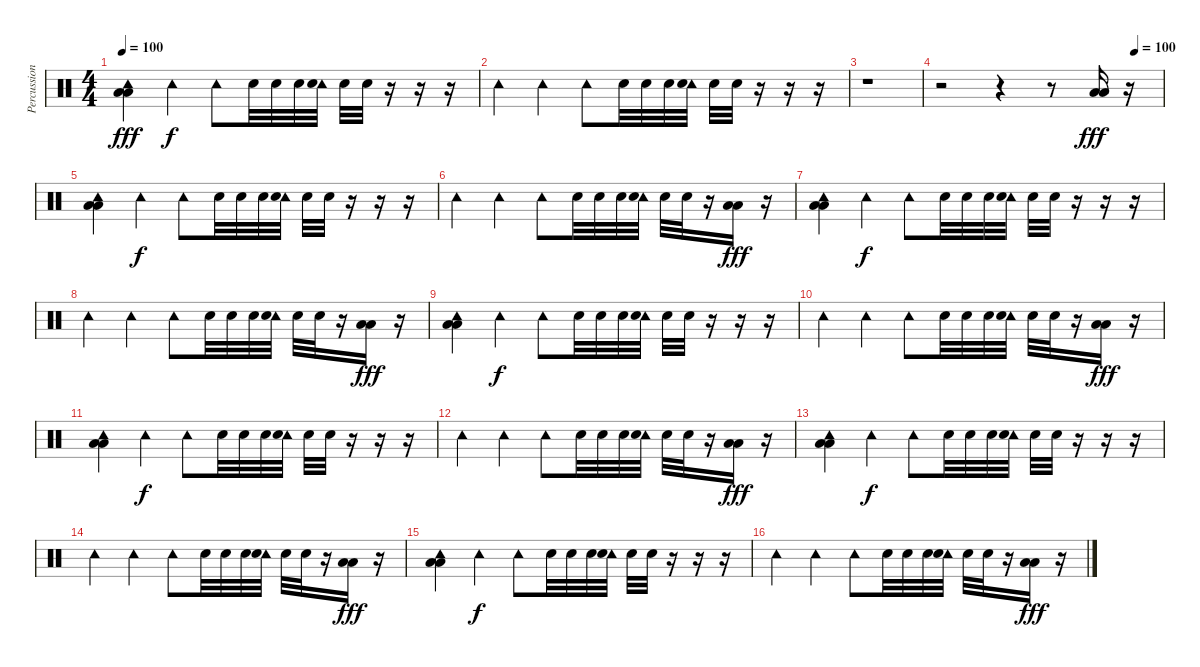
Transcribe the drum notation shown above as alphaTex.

\track ("Percussion" "Percussion") {instrument percussion}
\staff {score}
\articulation defaults
\ts (4 4)
\tempo 100
\clef neutral
\ks c
("Tambourine (hit)" "Low Floor Tom (hit)" "Low Tom (hit)").4{dy fff} "Tambourine (hit)".4{dy f} "Tambourine (hit)".8 "Snare (hit) 2".32 "Snare (hit) 2".32 "Snare (hit) 2".32 ("Tambourine (hit)" "Snare (hit) 2").32 "Snare (hit) 2".32 "Snare (hit) 2".32 r.16 r.16 r.16 |
"Tambourine (hit)".4 "Tambourine (hit)".4 "Tambourine (hit)".8 "Snare (hit) 2".32 "Snare (hit) 2".32 "Snare (hit) 2".32 ("Tambourine (hit)" "Snare (hit) 2").32 "Snare (hit) 2".32 "Snare (hit) 2".32 r.16 r.16 r.16 |
r.1 |
\tempo (100 0.875)
r.2 r.4 r.8 ("Low Floor Tom (hit)" "Low Tom (hit)").16{dy fff} r.16 |
("Tambourine (hit)" "Low Floor Tom (hit)" "Low Tom (hit)").4 "Tambourine (hit)".4{dy f} "Tambourine (hit)".8 "Snare (hit) 2".32 "Snare (hit) 2".32 "Snare (hit) 2".32 ("Tambourine (hit)" "Snare (hit) 2").32 "Snare (hit) 2".32 "Snare (hit) 2".32 r.16 r.16 r.16 |
"Tambourine (hit)".4 "Tambourine (hit)".4 "Tambourine (hit)".8 "Snare (hit) 2".32 "Snare (hit) 2".32 "Snare (hit) 2".32 ("Tambourine (hit)" "Snare (hit) 2").32 "Snare (hit) 2".32 "Snare (hit) 2".32 r.16 ("Low Floor Tom (hit)" "Low Tom (hit)").16{dy fff} r.16 |
("Tambourine (hit)" "Low Floor Tom (hit)" "Low Tom (hit)").4 "Tambourine (hit)".4{dy f} "Tambourine (hit)".8 "Snare (hit) 2".32 "Snare (hit) 2".32 "Snare (hit) 2".32 ("Tambourine (hit)" "Snare (hit) 2").32 "Snare (hit) 2".32 "Snare (hit) 2".32 r.16 r.16 r.16 |
"Tambourine (hit)".4 "Tambourine (hit)".4 "Tambourine (hit)".8 "Snare (hit) 2".32 "Snare (hit) 2".32 "Snare (hit) 2".32 ("Tambourine (hit)" "Snare (hit) 2").32 "Snare (hit) 2".32 "Snare (hit) 2".32 r.16 ("Low Floor Tom (hit)" "Low Tom (hit)").16{dy fff} r.16 |
("Tambourine (hit)" "Low Floor Tom (hit)" "Low Tom (hit)").4 "Tambourine (hit)".4{dy f} "Tambourine (hit)".8 "Snare (hit) 2".32 "Snare (hit) 2".32 "Snare (hit) 2".32 ("Tambourine (hit)" "Snare (hit) 2").32 "Snare (hit) 2".32 "Snare (hit) 2".32 r.16 r.16 r.16 |
"Tambourine (hit)".4 "Tambourine (hit)".4 "Tambourine (hit)".8 "Snare (hit) 2".32 "Snare (hit) 2".32 "Snare (hit) 2".32 ("Tambourine (hit)" "Snare (hit) 2").32 "Snare (hit) 2".32 "Snare (hit) 2".32 r.16 ("Low Floor Tom (hit)" "Low Tom (hit)").16{dy fff} r.16 |
("Tambourine (hit)" "Low Floor Tom (hit)" "Low Tom (hit)").4 "Tambourine (hit)".4{dy f} "Tambourine (hit)".8 "Snare (hit) 2".32 "Snare (hit) 2".32 "Snare (hit) 2".32 ("Tambourine (hit)" "Snare (hit) 2").32 "Snare (hit) 2".32 "Snare (hit) 2".32 r.16 r.16 r.16 |
"Tambourine (hit)".4 "Tambourine (hit)".4 "Tambourine (hit)".8 "Snare (hit) 2".32 "Snare (hit) 2".32 "Snare (hit) 2".32 ("Tambourine (hit)" "Snare (hit) 2").32 "Snare (hit) 2".32 "Snare (hit) 2".32 r.16 ("Low Floor Tom (hit)" "Low Tom (hit)").16{dy fff} r.16 |
("Tambourine (hit)" "Low Floor Tom (hit)" "Low Tom (hit)").4 "Tambourine (hit)".4{dy f} "Tambourine (hit)".8 "Snare (hit) 2".32 "Snare (hit) 2".32 "Snare (hit) 2".32 ("Tambourine (hit)" "Snare (hit) 2").32 "Snare (hit) 2".32 "Snare (hit) 2".32 r.16 r.16 r.16 |
"Tambourine (hit)".4 "Tambourine (hit)".4 "Tambourine (hit)".8 "Snare (hit) 2".32 "Snare (hit) 2".32 "Snare (hit) 2".32 ("Tambourine (hit)" "Snare (hit) 2").32 "Snare (hit) 2".32 "Snare (hit) 2".32 r.16 ("Low Floor Tom (hit)" "Low Tom (hit)").16{dy fff} r.16 |
("Tambourine (hit)" "Low Floor Tom (hit)" "Low Tom (hit)").4 "Tambourine (hit)".4{dy f} "Tambourine (hit)".8 "Snare (hit) 2".32 "Snare (hit) 2".32 "Snare (hit) 2".32 ("Tambourine (hit)" "Snare (hit) 2").32 "Snare (hit) 2".32 "Snare (hit) 2".32 r.16 r.16 r.16 |
"Tambourine (hit)".4 "Tambourine (hit)".4 "Tambourine (hit)".8 "Snare (hit) 2".32 "Snare (hit) 2".32 "Snare (hit) 2".32 ("Tambourine (hit)" "Snare (hit) 2").32 "Snare (hit) 2".32 "Snare (hit) 2".32 r.16 ("Low Floor Tom (hit)" "Low Tom (hit)").16{dy fff} r.16
